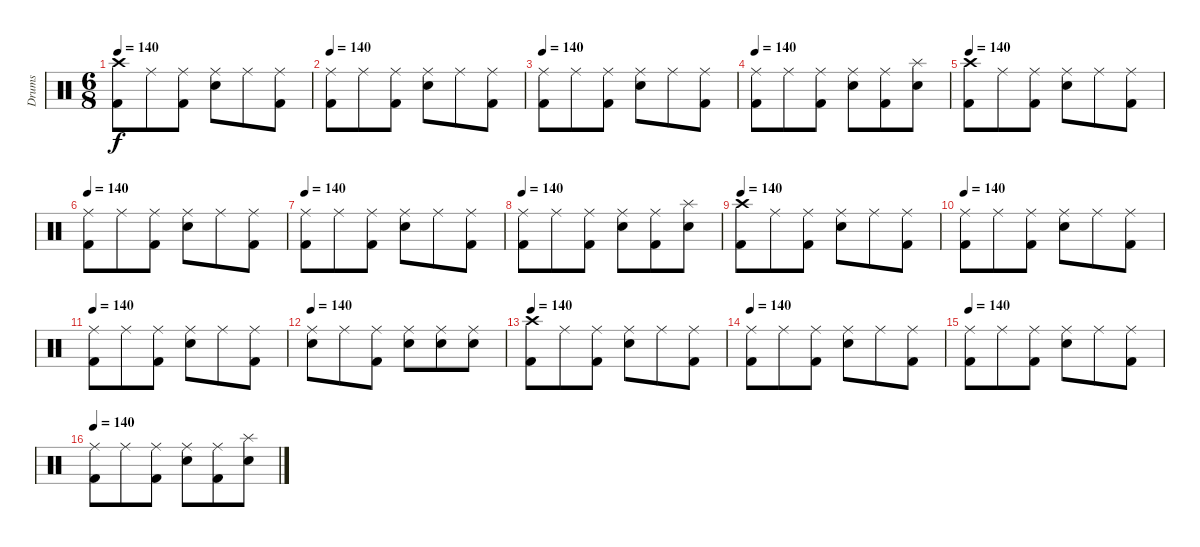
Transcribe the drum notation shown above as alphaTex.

\track ("Drums" "Drums") {instrument percussion}
\staff {score}
\articulation defaults
\ts (6 8)
\tempo 140
\clef neutral
\ks c
("Kick (hit) 2" "Crash high (hit)").8{dy f} "Ride (middle)".8 ("Kick (hit) 2" "Ride (middle)").8 ("Electric Snare (hit)" "Ride (middle)").8 "Ride (middle)".8 ("Kick (hit) 2" "Ride (middle)").8 |
\tempo 140
("Kick (hit) 2" "Ride (middle)").8 "Ride (middle)".8 ("Kick (hit) 2" "Ride (middle)").8 ("Electric Snare (hit)" "Ride (middle)").8 "Ride (middle)".8 ("Kick (hit) 2" "Ride (middle)").8 |
\tempo 140
("Kick (hit) 2" "Ride (middle)").8 "Ride (middle)".8 ("Kick (hit) 2" "Ride (middle)").8 ("Electric Snare (hit)" "Ride (middle)").8 "Ride (middle)".8 ("Kick (hit) 2" "Ride (middle)").8 |
\tempo 140
("Kick (hit) 2" "Ride (middle)").8 "Ride (middle)".8 ("Kick (hit) 2" "Ride (middle)").8 ("Electric Snare (hit)" "Ride (middle)").8 ("Kick (hit) 2" "Ride (middle)").8 ("Electric Snare (hit)" "Splash (hit)").8 |
\tempo 140
("Kick (hit) 2" "Crash high (hit)").8 "Ride (middle)".8 ("Kick (hit) 2" "Ride (middle)").8 ("Electric Snare (hit)" "Ride (middle)").8 "Ride (middle)".8 ("Kick (hit) 2" "Ride (middle)").8 |
\tempo 140
("Kick (hit) 2" "Ride (middle)").8 "Ride (middle)".8 ("Kick (hit) 2" "Ride (middle)").8 ("Electric Snare (hit)" "Ride (middle)").8 "Ride (middle)".8 ("Kick (hit) 2" "Ride (middle)").8 |
\tempo 140
("Kick (hit) 2" "Ride (middle)").8 "Ride (middle)".8 ("Kick (hit) 2" "Ride (middle)").8 ("Electric Snare (hit)" "Ride (middle)").8 "Ride (middle)".8 ("Kick (hit) 2" "Ride (middle)").8 |
\tempo 140
("Kick (hit) 2" "Ride (middle)").8 "Ride (middle)".8 ("Kick (hit) 2" "Ride (middle)").8 ("Electric Snare (hit)" "Ride (middle)").8 ("Kick (hit) 2" "Ride (middle)").8 ("Electric Snare (hit)" "Splash (hit)").8 |
\tempo 140
("Kick (hit) 2" "Crash high (hit)").8 "Ride (middle)".8 ("Kick (hit) 2" "Ride (middle)").8 ("Electric Snare (hit)" "Ride (middle)").8 "Ride (middle)".8 ("Kick (hit) 2" "Ride (middle)").8 |
\tempo 140
("Kick (hit) 2" "Ride (middle)").8 "Ride (middle)".8 ("Kick (hit) 2" "Ride (middle)").8 ("Electric Snare (hit)" "Ride (middle)").8 "Ride (middle)".8 ("Kick (hit) 2" "Ride (middle)").8 |
\tempo 140
("Kick (hit) 2" "Ride (middle)").8 "Ride (middle)".8 ("Kick (hit) 2" "Ride (middle)").8 ("Electric Snare (hit)" "Ride (middle)").8 "Ride (middle)".8 ("Kick (hit) 2" "Ride (middle)").8 |
\tempo 140
("Electric Snare (hit)" "Ride (middle)").8 "Ride (middle)".8 ("Kick (hit) 2" "Ride (middle)").8 ("Electric Snare (hit)" "Ride (middle)").8 ("Electric Snare (hit)" "Ride (middle)").8 ("Electric Snare (hit)" "Ride (middle)").8 |
\tempo 140
("Kick (hit) 2" "Crash high (hit)").8 "Ride (middle)".8 ("Kick (hit) 2" "Ride (middle)").8 ("Electric Snare (hit)" "Ride (middle)").8 "Ride (middle)".8 ("Kick (hit) 2" "Ride (middle)").8 |
\tempo 140
("Kick (hit) 2" "Ride (middle)").8 "Ride (middle)".8 ("Kick (hit) 2" "Ride (middle)").8 ("Electric Snare (hit)" "Ride (middle)").8 "Ride (middle)".8 ("Kick (hit) 2" "Ride (middle)").8 |
\tempo 140
("Kick (hit) 2" "Ride (middle)").8 "Ride (middle)".8 ("Kick (hit) 2" "Ride (middle)").8 ("Electric Snare (hit)" "Ride (middle)").8 "Ride (middle)".8 ("Kick (hit) 2" "Ride (middle)").8 |
\tempo 140
("Kick (hit) 2" "Ride (middle)").8 "Ride (middle)".8 ("Kick (hit) 2" "Ride (middle)").8 ("Electric Snare (hit)" "Ride (middle)").8 ("Kick (hit) 2" "Ride (middle)").8 ("Electric Snare (hit)" "Splash (hit)").8
